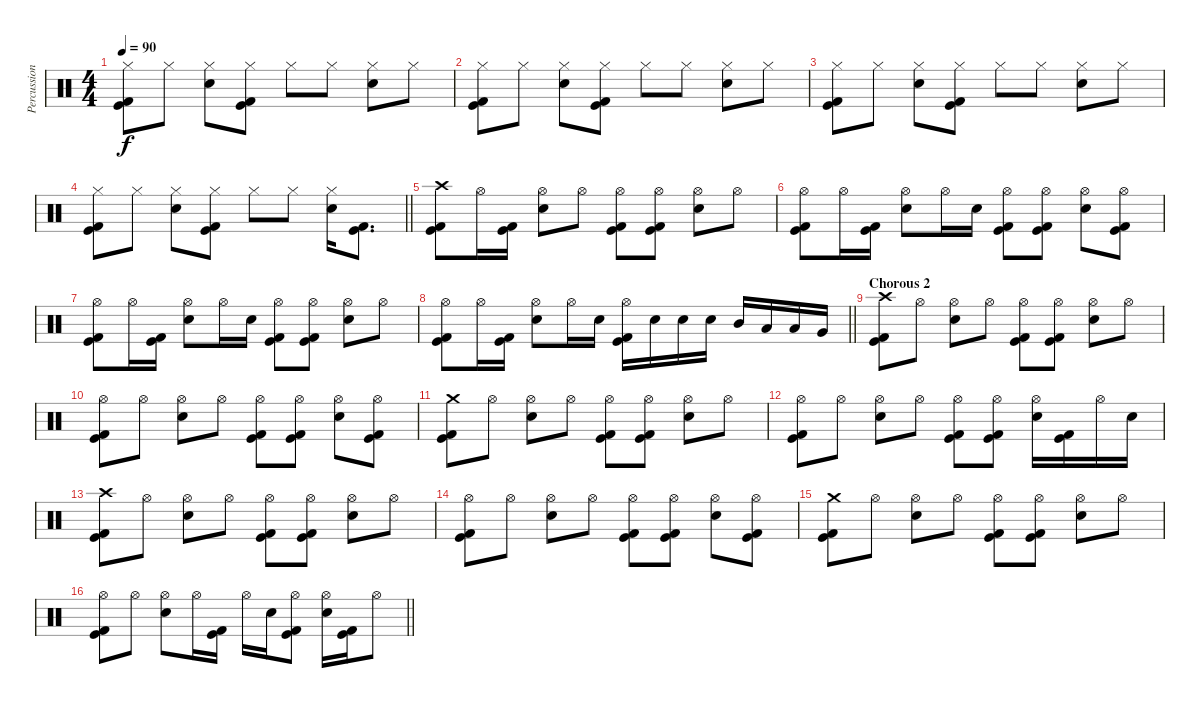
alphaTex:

\track ("Percussion" "Percussion") {instrument percussion}
\staff {score}
\articulation defaults
\ts (4 4)
\tempo 90
\clef neutral
\ks c
("Hi-Hat (closed)" "Kick (hit)" "Kick (hit) 2").8{dy f} "Hi-Hat (closed)".8 ("Hi-Hat (closed)" "Electric Snare (hit)").8 ("Hi-Hat (closed)" "Kick (hit)" "Kick (hit) 2").8 "Hi-Hat (closed)".8 "Hi-Hat (closed)".8 ("Hi-Hat (closed)" "Electric Snare (hit)").8 "Hi-Hat (closed)".8 |
("Hi-Hat (closed)" "Kick (hit)" "Kick (hit) 2").8 "Hi-Hat (closed)".8 ("Hi-Hat (closed)" "Electric Snare (hit)").8 ("Hi-Hat (closed)" "Kick (hit)" "Kick (hit) 2").8 "Hi-Hat (closed)".8 "Hi-Hat (closed)".8 ("Hi-Hat (closed)" "Electric Snare (hit)").8 "Hi-Hat (closed)".8 |
("Hi-Hat (closed)" "Kick (hit)" "Kick (hit) 2").8 "Hi-Hat (closed)".8 ("Hi-Hat (closed)" "Electric Snare (hit)").8 ("Hi-Hat (closed)" "Kick (hit)" "Kick (hit) 2").8 "Hi-Hat (closed)".8 "Hi-Hat (closed)".8 ("Hi-Hat (closed)" "Electric Snare (hit)").8 "Hi-Hat (closed)".8 |
\barLineRight lightlight
("Hi-Hat (closed)" "Kick (hit)" "Kick (hit) 2").8 "Hi-Hat (closed)".8 ("Hi-Hat (closed)" "Electric Snare (hit)").8 ("Hi-Hat (closed)" "Kick (hit)" "Kick (hit) 2").8 "Hi-Hat (closed)".8 "Hi-Hat (closed)".8 ("Hi-Hat (closed)" "Electric Snare (hit)").16 ("Kick (hit)" "Kick (hit) 2").8{d} |
\section ("" "")
("Crash high (hit)" "Kick (hit)" "Kick (hit) 2").8 "Hi-Hat (open)".16 ("Kick (hit)" "Kick (hit) 2").16 ("Hi-Hat (open)" "Electric Snare (hit)").8 "Hi-Hat (open)".8 ("Hi-Hat (open)" "Kick (hit)" "Kick (hit) 2").8 ("Hi-Hat (open)" "Kick (hit)" "Kick (hit) 2").8 ("Hi-Hat (open)" "Electric Snare (hit)").8 "Hi-Hat (open)".8 |
("Hi-Hat (open)" "Kick (hit)" "Kick (hit) 2").8 "Hi-Hat (open)".16 ("Kick (hit)" "Kick (hit) 2").16 ("Hi-Hat (open)" "Electric Snare (hit)").8 "Hi-Hat (open)".16 "Electric Snare (hit)".16 ("Hi-Hat (open)" "Kick (hit)" "Kick (hit) 2").8 ("Hi-Hat (open)" "Kick (hit)" "Kick (hit) 2").8 ("Hi-Hat (open)" "Electric Snare (hit)").8 ("Hi-Hat (open)" "Kick (hit)" "Kick (hit) 2").8 |
("Hi-Hat (open)" "Kick (hit)" "Kick (hit) 2").8 "Hi-Hat (open)".16 ("Kick (hit)" "Kick (hit) 2").16 ("Hi-Hat (open)" "Electric Snare (hit)").8 "Hi-Hat (open)".16 "Electric Snare (hit)".16 ("Hi-Hat (open)" "Kick (hit)" "Kick (hit) 2").8 ("Hi-Hat (open)" "Kick (hit)" "Kick (hit) 2").8 ("Hi-Hat (open)" "Electric Snare (hit)").8 "Hi-Hat (open)".8 |
\barLineRight lightlight
("Hi-Hat (open)" "Kick (hit)" "Kick (hit) 2").8 "Hi-Hat (open)".16 ("Kick (hit)" "Kick (hit) 2").16 ("Hi-Hat (open)" "Electric Snare (hit)").8 "Hi-Hat (open)".16 "Electric Snare (hit)".16 ("Hi-Hat (open)" "Kick (hit)" "Kick (hit) 2").16 "Electric Snare (hit)".16 "Electric Snare (hit)".16 "Electric Snare (hit)".16 "Mid Tom (hit)".16 "Low Tom (hit)".16 "Low Tom (hit)".16 "Very Low Tom (hit)".16 |
\section ("" "Chorous 2")
("Crash high (hit)" "Kick (hit)" "Kick (hit) 2").8 "Hi-Hat (open)".8 ("Hi-Hat (open)" "Electric Snare (hit)").8 "Hi-Hat (open)".8 ("Hi-Hat (open)" "Kick (hit)" "Kick (hit) 2").8 ("Hi-Hat (open)" "Kick (hit)" "Kick (hit) 2").8 ("Hi-Hat (open)" "Electric Snare (hit)").8 "Hi-Hat (open)".8 |
("Hi-Hat (open)" "Kick (hit)" "Kick (hit) 2").8 "Hi-Hat (open)".8 ("Hi-Hat (open)" "Electric Snare (hit)").8 "Hi-Hat (open)".8 ("Hi-Hat (open)" "Kick (hit)" "Kick (hit) 2").8 ("Hi-Hat (open)" "Kick (hit)" "Kick (hit) 2").8 ("Hi-Hat (open)" "Electric Snare (hit)").8 ("Hi-Hat (open)" "Kick (hit)" "Kick (hit) 2").8 |
("Crash medium (hit)" "Kick (hit)" "Kick (hit) 2").8 "Hi-Hat (open)".8 ("Hi-Hat (open)" "Electric Snare (hit)").8 "Hi-Hat (open)".8 ("Hi-Hat (open)" "Kick (hit)" "Kick (hit) 2").8 ("Hi-Hat (open)" "Kick (hit)" "Kick (hit) 2").8 ("Hi-Hat (open)" "Electric Snare (hit)").8 "Hi-Hat (open)".8 |
("Hi-Hat (open)" "Kick (hit)" "Kick (hit) 2").8 "Hi-Hat (open)".8 ("Hi-Hat (open)" "Electric Snare (hit)").8 "Hi-Hat (open)".8 ("Hi-Hat (open)" "Kick (hit)" "Kick (hit) 2").8 ("Hi-Hat (open)" "Kick (hit)" "Kick (hit) 2").8 ("Hi-Hat (open)" "Electric Snare (hit)").16 ("Kick (hit)" "Kick (hit) 2").16 "Hi-Hat (open)".16 "Electric Snare (hit)".16 |
("Crash high (hit)" "Kick (hit)" "Kick (hit) 2").8 "Hi-Hat (open)".8 ("Hi-Hat (open)" "Electric Snare (hit)").8 "Hi-Hat (open)".8 ("Hi-Hat (open)" "Kick (hit)" "Kick (hit) 2").8 ("Hi-Hat (open)" "Kick (hit)" "Kick (hit) 2").8 ("Hi-Hat (open)" "Electric Snare (hit)").8 "Hi-Hat (open)".8 |
("Hi-Hat (open)" "Kick (hit)" "Kick (hit) 2").8 "Hi-Hat (open)".8 ("Hi-Hat (open)" "Electric Snare (hit)").8 "Hi-Hat (open)".8 ("Hi-Hat (open)" "Kick (hit)" "Kick (hit) 2").8 ("Hi-Hat (open)" "Kick (hit)" "Kick (hit) 2").8 ("Hi-Hat (open)" "Electric Snare (hit)").8 ("Hi-Hat (open)" "Kick (hit)" "Kick (hit) 2").8 |
("Crash medium (hit)" "Kick (hit)" "Kick (hit) 2").8 "Hi-Hat (open)".8 ("Hi-Hat (open)" "Electric Snare (hit)").8 "Hi-Hat (open)".8 ("Hi-Hat (open)" "Kick (hit)" "Kick (hit) 2").8 ("Hi-Hat (open)" "Kick (hit)" "Kick (hit) 2").8 ("Hi-Hat (open)" "Electric Snare (hit)").8 "Hi-Hat (open)".8 |
\barLineRight lightlight
("Hi-Hat (open)" "Kick (hit)" "Kick (hit) 2").8 "Hi-Hat (open)".8 ("Hi-Hat (open)" "Electric Snare (hit)").8 "Hi-Hat (open)".16 ("Kick (hit)" "Kick (hit) 2").16 "Hi-Hat (open)".16 "Electric Snare (hit)".16 ("Hi-Hat (open)" "Kick (hit)" "Kick (hit) 2").8 ("Hi-Hat (open)" "Electric Snare (hit)").16 ("Kick (hit)" "Kick (hit) 2").16 "Hi-Hat (open)".8
